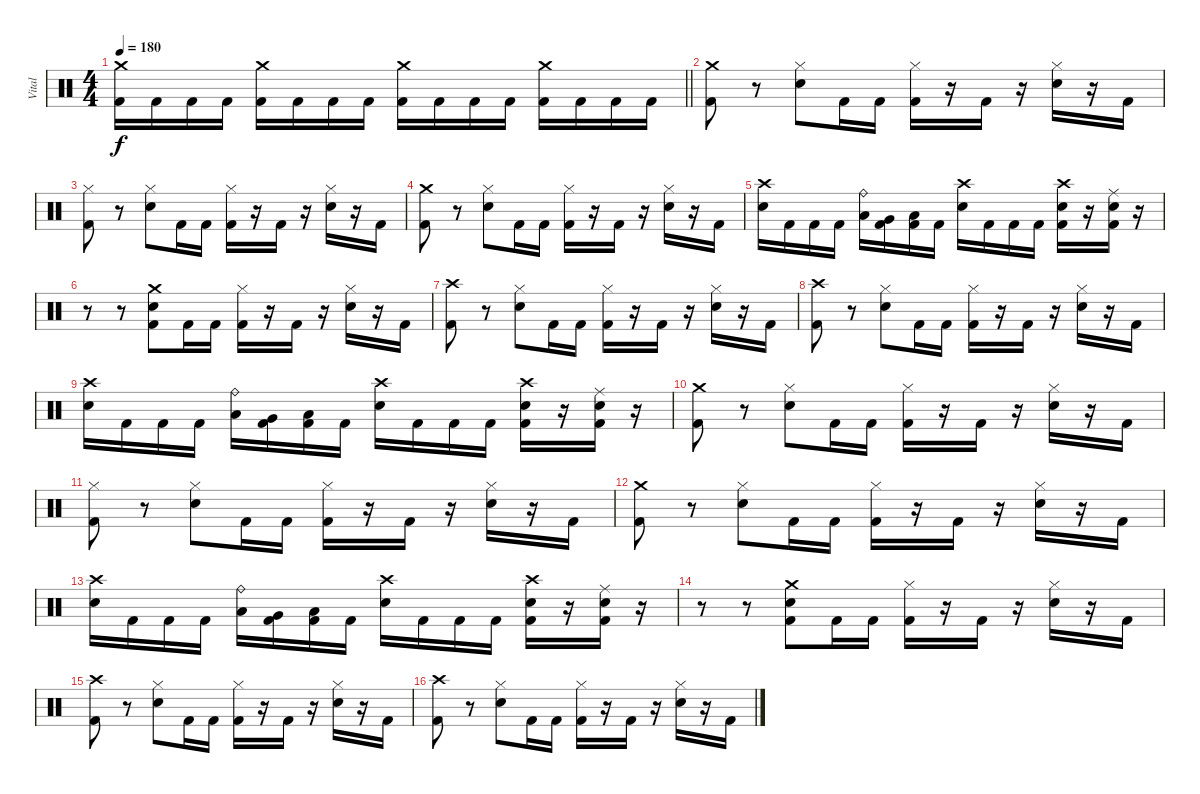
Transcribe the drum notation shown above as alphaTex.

\track ("Vital" "Vital") {instrument percussion}
\staff {score}
\articulation defaults
\ts (4 4)
\tempo 180
\clef neutral
\barLineRight lightlight
\ks c
("Crash medium (hit)" "Kick (hit) 2").16{dy f} "Kick (hit) 2".16 "Kick (hit) 2".16 "Kick (hit) 2".16 ("Crash medium (hit)" "Kick (hit) 2").16 "Kick (hit) 2".16 "Kick (hit) 2".16 "Kick (hit) 2".16 ("Crash medium (hit)" "Kick (hit) 2").16 "Kick (hit) 2".16 "Kick (hit) 2".16 "Kick (hit) 2".16 ("Crash medium (hit)" "Kick (hit) 2").16 "Kick (hit) 2".16 "Kick (hit) 2".16 "Kick (hit) 2".16 |
("Crash medium (hit)" "Kick (hit) 2").8 r.8 ("Hi-Hat (closed)" "Snare (hit) 2").8 "Kick (hit) 2".16 "Kick (hit) 2".16 ("Hi-Hat (closed)" "Kick (hit) 2").16 r.16 "Kick (hit) 2".16 r.16 ("Hi-Hat (closed)" "Snare (hit) 2").16 r.16 "Kick (hit) 2".16 |
("Hi-Hat (closed)" "Kick (hit) 2").8 r.8 ("Hi-Hat (closed)" "Snare (hit) 2").8 "Kick (hit) 2".16 "Kick (hit) 2".16 ("Hi-Hat (closed)" "Kick (hit) 2").16 r.16 "Kick (hit) 2".16 r.16 ("Hi-Hat (closed)" "Snare (hit) 2").16 r.16 "Kick (hit) 2".16 |
("Crash medium (hit)" "Kick (hit) 2").8 r.8 ("Hi-Hat (closed)" "Snare (hit) 2").8 "Kick (hit) 2".16 "Kick (hit) 2".16 ("Hi-Hat (closed)" "Kick (hit) 2").16 r.16 "Kick (hit) 2".16 r.16 ("Hi-Hat (closed)" "Snare (hit) 2").16 r.16 "Kick (hit) 2".16 |
("Snare (hit) 2" "Crash high (hit)").16 "Kick (hit) 2".16 "Kick (hit) 2".16 "Kick (hit) 2".16 ("Low Tom (hit)" "Ride (bell)").16 ("Very Low Tom (hit)" "Kick (hit) 2").16 ("Low Floor Tom (hit)" "Kick (hit) 2").16 "Kick (hit) 2".16 ("Snare (hit) 2" "Crash high (hit)").16 "Kick (hit) 2".16 "Kick (hit) 2".16 "Kick (hit) 2".16 ("Crash high (hit)" "Snare (hit) 2" "Kick (hit) 2").16 r.16 ("Ride (middle)" "Snare (hit) 2" "Kick (hit) 2").16 r.16 |
r.8 r.8 ("Crash medium (hit)" "Snare (hit) 2" "Kick (hit) 2").8 "Kick (hit) 2".16 "Kick (hit) 2".16 ("Hi-Hat (closed)" "Kick (hit) 2").16 r.16 "Kick (hit) 2".16 r.16 ("Hi-Hat (closed)" "Snare (hit) 2").16 r.16 "Kick (hit) 2".16 |
("Crash high (hit)" "Kick (hit) 2").8 r.8 ("Hi-Hat (closed)" "Snare (hit) 2").8 "Kick (hit) 2".16 "Kick (hit) 2".16 ("Hi-Hat (closed)" "Kick (hit) 2").16 r.16 "Kick (hit) 2".16 r.16 ("Hi-Hat (closed)" "Snare (hit) 2").16 r.16 "Kick (hit) 2".16 |
("Crash high (hit)" "Kick (hit) 2").8 r.8 ("Hi-Hat (closed)" "Snare (hit) 2").8 "Kick (hit) 2".16 "Kick (hit) 2".16 ("Hi-Hat (closed)" "Kick (hit) 2").16 r.16 "Kick (hit) 2".16 r.16 ("Hi-Hat (closed)" "Snare (hit) 2").16 r.16 "Kick (hit) 2".16 |
("Snare (hit) 2" "Crash high (hit)").16 "Kick (hit) 2".16 "Kick (hit) 2".16 "Kick (hit) 2".16 ("Low Tom (hit)" "Ride (bell)").16 ("Very Low Tom (hit)" "Kick (hit) 2").16 ("Low Floor Tom (hit)" "Kick (hit) 2").16 "Kick (hit) 2".16 ("Snare (hit) 2" "Crash high (hit)").16 "Kick (hit) 2".16 "Kick (hit) 2".16 "Kick (hit) 2".16 ("Crash high (hit)" "Snare (hit) 2" "Kick (hit) 2").16 r.16 ("Ride (middle)" "Snare (hit) 2" "Kick (hit) 2").16 r.16 |
("Crash medium (hit)" "Kick (hit) 2").8 r.8 ("Hi-Hat (closed)" "Snare (hit) 2").8 "Kick (hit) 2".16 "Kick (hit) 2".16 ("Hi-Hat (closed)" "Kick (hit) 2").16 r.16 "Kick (hit) 2".16 r.16 ("Hi-Hat (closed)" "Snare (hit) 2").16 r.16 "Kick (hit) 2".16 |
("Hi-Hat (closed)" "Kick (hit) 2").8 r.8 ("Hi-Hat (closed)" "Snare (hit) 2").8 "Kick (hit) 2".16 "Kick (hit) 2".16 ("Hi-Hat (closed)" "Kick (hit) 2").16 r.16 "Kick (hit) 2".16 r.16 ("Hi-Hat (closed)" "Snare (hit) 2").16 r.16 "Kick (hit) 2".16 |
("Crash medium (hit)" "Kick (hit) 2").8 r.8 ("Hi-Hat (closed)" "Snare (hit) 2").8 "Kick (hit) 2".16 "Kick (hit) 2".16 ("Hi-Hat (closed)" "Kick (hit) 2").16 r.16 "Kick (hit) 2".16 r.16 ("Hi-Hat (closed)" "Snare (hit) 2").16 r.16 "Kick (hit) 2".16 |
("Snare (hit) 2" "Crash high (hit)").16 "Kick (hit) 2".16 "Kick (hit) 2".16 "Kick (hit) 2".16 ("Low Tom (hit)" "Ride (bell)").16 ("Very Low Tom (hit)" "Kick (hit) 2").16 ("Low Floor Tom (hit)" "Kick (hit) 2").16 "Kick (hit) 2".16 ("Snare (hit) 2" "Crash high (hit)").16 "Kick (hit) 2".16 "Kick (hit) 2".16 "Kick (hit) 2".16 ("Crash high (hit)" "Snare (hit) 2" "Kick (hit) 2").16 r.16 ("Ride (middle)" "Snare (hit) 2" "Kick (hit) 2").16 r.16 |
r.8 r.8 ("Crash medium (hit)" "Snare (hit) 2" "Kick (hit) 2").8 "Kick (hit) 2".16 "Kick (hit) 2".16 ("Hi-Hat (closed)" "Kick (hit) 2").16 r.16 "Kick (hit) 2".16 r.16 ("Hi-Hat (closed)" "Snare (hit) 2").16 r.16 "Kick (hit) 2".16 |
("Crash high (hit)" "Kick (hit) 2").8 r.8 ("Hi-Hat (closed)" "Snare (hit) 2").8 "Kick (hit) 2".16 "Kick (hit) 2".16 ("Hi-Hat (closed)" "Kick (hit) 2").16 r.16 "Kick (hit) 2".16 r.16 ("Hi-Hat (closed)" "Snare (hit) 2").16 r.16 "Kick (hit) 2".16 |
("Crash high (hit)" "Kick (hit) 2").8 r.8 ("Hi-Hat (closed)" "Snare (hit) 2").8 "Kick (hit) 2".16 "Kick (hit) 2".16 ("Hi-Hat (closed)" "Kick (hit) 2").16 r.16 "Kick (hit) 2".16 r.16 ("Hi-Hat (closed)" "Snare (hit) 2").16 r.16 "Kick (hit) 2".16
